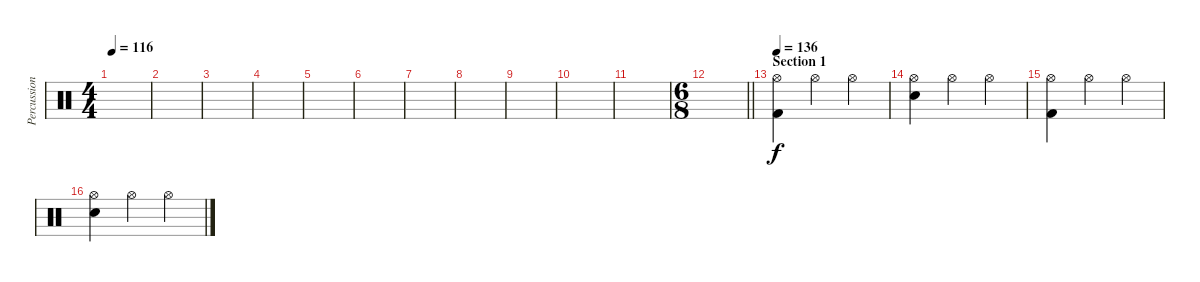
\track ("Percussion" "Percussion") {instrument percussion}
\staff {score}
\articulation defaults
\ts (4 4)
\tempo 116
\clef neutral
\ks c
|
|
|
|
|
|
|
|
|
|
|
\ts (6 8)
\barLineRight lightlight
|
\section ("" "Section 1")
\tempo 136
("Hi-Hat (open)" "Kick (hit) 2").4{volume 13} "Hi-Hat (open)".4 "Hi-Hat (open)".4 |
("Hi-Hat (open)" "Snare (hit) 2").4 "Hi-Hat (open)".4 "Hi-Hat (open)".4 |
("Hi-Hat (open)" "Kick (hit) 2").4 "Hi-Hat (open)".4 "Hi-Hat (open)".4 |
("Hi-Hat (open)" "Snare (hit) 2").4 "Hi-Hat (open)".4 "Hi-Hat (open)".4
